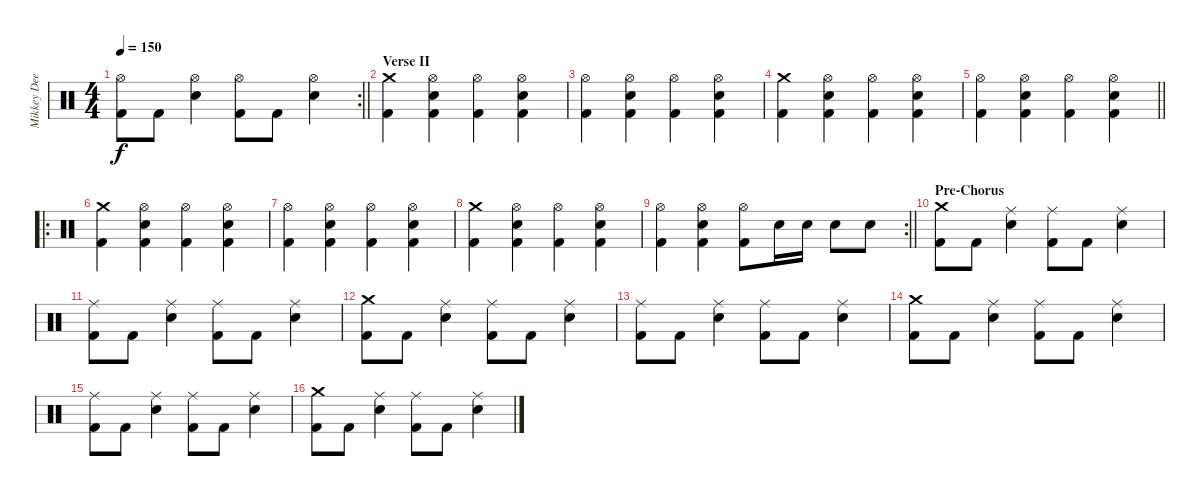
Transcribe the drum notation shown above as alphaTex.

\track ("Mikkey Dee" "Mikkey Dee") {instrument percussion}
\staff {score}
\articulation defaults
\rc 2
\ts (4 4)
\tempo 150
\clef neutral
\barLineRight lightlight
\ks c
("Hi-Hat (open)" "Kick (hit) 2").8{dy f} "Kick (hit) 2".8 ("Hi-Hat (open)" "Electric Snare (hit)").4 ("Hi-Hat (open)" "Kick (hit) 2").8 "Kick (hit) 2".8 ("Hi-Hat (open)" "Electric Snare (hit)").4 |
\section ("" "Verse II")
("Crash medium (hit)" "Kick (hit) 2").4 ("Hi-Hat (open)" "Electric Snare (hit)" "Kick (hit) 2").4 ("Hi-Hat (open)" "Kick (hit) 2").4 ("Hi-Hat (open)" "Electric Snare (hit)" "Kick (hit) 2").4 |
("Hi-Hat (open)" "Kick (hit) 2").4 ("Hi-Hat (open)" "Electric Snare (hit)" "Kick (hit) 2").4 ("Hi-Hat (open)" "Kick (hit) 2").4 ("Hi-Hat (open)" "Electric Snare (hit)" "Kick (hit) 2").4 |
("Crash medium (hit)" "Kick (hit) 2").4 ("Hi-Hat (open)" "Electric Snare (hit)" "Kick (hit) 2").4 ("Hi-Hat (open)" "Kick (hit) 2").4 ("Hi-Hat (open)" "Electric Snare (hit)" "Kick (hit) 2").4 |
\barLineRight lightlight
("Hi-Hat (open)" "Kick (hit) 2").4 ("Hi-Hat (open)" "Electric Snare (hit)" "Kick (hit) 2").4 ("Hi-Hat (open)" "Kick (hit) 2").4 ("Hi-Hat (open)" "Electric Snare (hit)" "Kick (hit) 2").4 |
\ro
("Crash medium (hit)" "Kick (hit) 2").4 ("Hi-Hat (open)" "Electric Snare (hit)" "Kick (hit) 2").4 ("Hi-Hat (open)" "Kick (hit) 2").4 ("Hi-Hat (open)" "Electric Snare (hit)" "Kick (hit) 2").4 |
("Hi-Hat (open)" "Kick (hit) 2").4 ("Hi-Hat (open)" "Electric Snare (hit)" "Kick (hit) 2").4 ("Hi-Hat (open)" "Kick (hit) 2").4 ("Hi-Hat (open)" "Electric Snare (hit)" "Kick (hit) 2").4 |
("Crash medium (hit)" "Kick (hit) 2").4 ("Hi-Hat (open)" "Electric Snare (hit)" "Kick (hit) 2").4 ("Hi-Hat (open)" "Kick (hit) 2").4 ("Hi-Hat (open)" "Electric Snare (hit)" "Kick (hit) 2").4 |
\rc 2
\barLineRight lightlight
("Hi-Hat (open)" "Kick (hit) 2").4 ("Hi-Hat (open)" "Electric Snare (hit)" "Kick (hit) 2").4 ("Hi-Hat (open)" "Kick (hit) 2").8 "Electric Snare (hit)".16 "Electric Snare (hit)".16 "Electric Snare (hit)".8 "Electric Snare (hit)".8 |
\section ("" "Pre-Chorus")
("Crash medium (hit)" "Kick (hit) 2").8 "Kick (hit) 2".8 ("Ride (middle)" "Electric Snare (hit)").4 ("Ride (middle)" "Kick (hit) 2").8 "Kick (hit) 2".8 ("Ride (middle)" "Electric Snare (hit)").4 |
("Ride (middle)" "Kick (hit) 2").8 "Kick (hit) 2".8 ("Ride (middle)" "Electric Snare (hit)").4 ("Ride (middle)" "Kick (hit) 2").8 "Kick (hit) 2".8 ("Ride (middle)" "Electric Snare (hit)").4 |
("Crash medium (hit)" "Kick (hit) 2").8 "Kick (hit) 2".8 ("Ride (middle)" "Electric Snare (hit)").4 ("Ride (middle)" "Kick (hit) 2").8 "Kick (hit) 2".8 ("Ride (middle)" "Electric Snare (hit)").4 |
("Ride (middle)" "Kick (hit) 2").8 "Kick (hit) 2".8 ("Ride (middle)" "Electric Snare (hit)").4 ("Ride (middle)" "Kick (hit) 2").8 "Kick (hit) 2".8 ("Ride (middle)" "Electric Snare (hit)").4 |
("Crash medium (hit)" "Kick (hit) 2").8 "Kick (hit) 2".8 ("Ride (middle)" "Electric Snare (hit)").4 ("Ride (middle)" "Kick (hit) 2").8 "Kick (hit) 2".8 ("Ride (middle)" "Electric Snare (hit)").4 |
("Ride (middle)" "Kick (hit) 2").8 "Kick (hit) 2".8 ("Ride (middle)" "Electric Snare (hit)").4 ("Ride (middle)" "Kick (hit) 2").8 "Kick (hit) 2".8 ("Ride (middle)" "Electric Snare (hit)").4 |
("Crash medium (hit)" "Kick (hit) 2").8 "Kick (hit) 2".8 ("Ride (middle)" "Electric Snare (hit)").4 ("Ride (middle)" "Kick (hit) 2").8 "Kick (hit) 2".8 ("Ride (middle)" "Electric Snare (hit)").4
